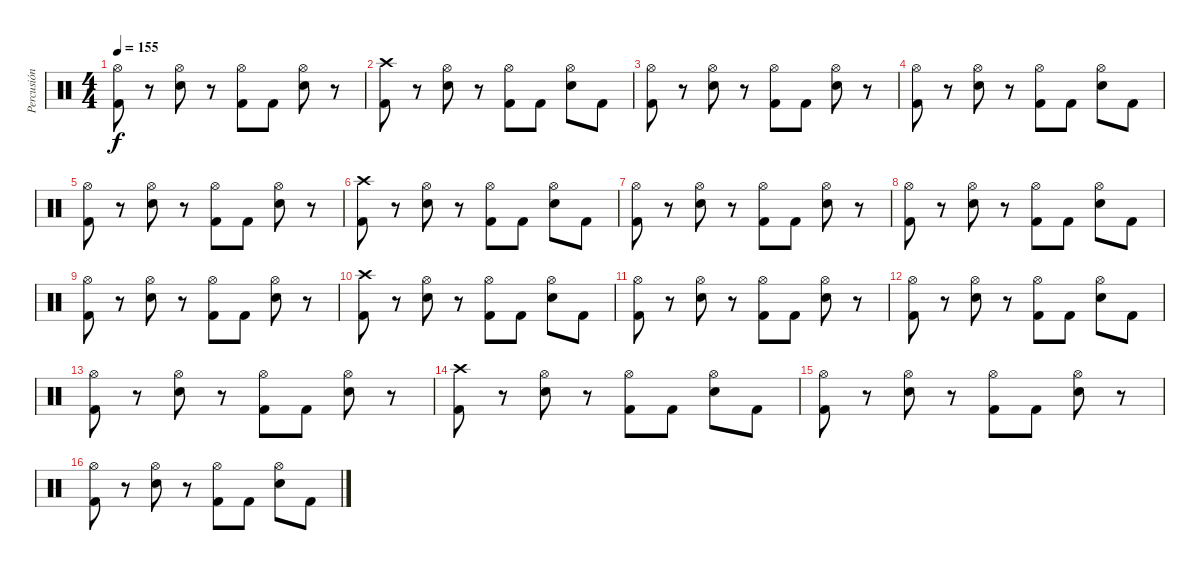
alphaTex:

\track ("Percusión" "Percusión") {instrument percussion}
\staff {score}
\articulation defaults
\ts (4 4)
\tempo 155
\clef neutral
\ks c
("Hi-Hat (open)" "Kick (hit) 2").8{dy f} r.8 ("Hi-Hat (open)" "Electric Snare (hit)").8 r.8 ("Hi-Hat (open)" "Kick (hit) 2").8 "Kick (hit) 2".8 ("Hi-Hat (open)" "Electric Snare (hit)").8 r.8 |
("Crash high (hit)" "Kick (hit) 2").8 r.8 ("Hi-Hat (open)" "Electric Snare (hit)").8 r.8 ("Hi-Hat (open)" "Kick (hit) 2").8 "Kick (hit) 2".8 ("Hi-Hat (open)" "Electric Snare (hit)").8 "Kick (hit) 2".8 |
("Hi-Hat (open)" "Kick (hit) 2").8 r.8 ("Hi-Hat (open)" "Electric Snare (hit)").8 r.8 ("Hi-Hat (open)" "Kick (hit) 2").8 "Kick (hit) 2".8 ("Hi-Hat (open)" "Electric Snare (hit)").8 r.8 |
("Hi-Hat (open)" "Kick (hit) 2").8 r.8 ("Hi-Hat (open)" "Electric Snare (hit)").8 r.8 ("Hi-Hat (open)" "Kick (hit) 2").8 "Kick (hit) 2".8 ("Hi-Hat (open)" "Electric Snare (hit)").8 "Kick (hit) 2".8 |
("Hi-Hat (open)" "Kick (hit) 2").8 r.8 ("Hi-Hat (open)" "Electric Snare (hit)").8 r.8 ("Hi-Hat (open)" "Kick (hit) 2").8 "Kick (hit) 2".8 ("Hi-Hat (open)" "Electric Snare (hit)").8 r.8 |
("Crash high (hit)" "Kick (hit) 2").8 r.8 ("Hi-Hat (open)" "Electric Snare (hit)").8 r.8 ("Hi-Hat (open)" "Kick (hit) 2").8 "Kick (hit) 2".8 ("Hi-Hat (open)" "Electric Snare (hit)").8 "Kick (hit) 2".8 |
("Hi-Hat (open)" "Kick (hit) 2").8 r.8 ("Hi-Hat (open)" "Electric Snare (hit)").8 r.8 ("Hi-Hat (open)" "Kick (hit) 2").8 "Kick (hit) 2".8 ("Hi-Hat (open)" "Electric Snare (hit)").8 r.8 |
("Hi-Hat (open)" "Kick (hit) 2").8 r.8 ("Hi-Hat (open)" "Electric Snare (hit)").8 r.8 ("Hi-Hat (open)" "Kick (hit) 2").8 "Kick (hit) 2".8 ("Hi-Hat (open)" "Electric Snare (hit)").8 "Kick (hit) 2".8 |
("Hi-Hat (open)" "Kick (hit) 2").8 r.8 ("Hi-Hat (open)" "Electric Snare (hit)").8 r.8 ("Hi-Hat (open)" "Kick (hit) 2").8 "Kick (hit) 2".8 ("Hi-Hat (open)" "Electric Snare (hit)").8 r.8 |
("Crash high (hit)" "Kick (hit) 2").8 r.8 ("Hi-Hat (open)" "Electric Snare (hit)").8 r.8 ("Hi-Hat (open)" "Kick (hit) 2").8 "Kick (hit) 2".8 ("Hi-Hat (open)" "Electric Snare (hit)").8 "Kick (hit) 2".8 |
("Hi-Hat (open)" "Kick (hit) 2").8 r.8 ("Hi-Hat (open)" "Electric Snare (hit)").8 r.8 ("Hi-Hat (open)" "Kick (hit) 2").8 "Kick (hit) 2".8 ("Hi-Hat (open)" "Electric Snare (hit)").8 r.8 |
("Hi-Hat (open)" "Kick (hit) 2").8 r.8 ("Hi-Hat (open)" "Electric Snare (hit)").8 r.8 ("Hi-Hat (open)" "Kick (hit) 2").8 "Kick (hit) 2".8 ("Hi-Hat (open)" "Electric Snare (hit)").8 "Kick (hit) 2".8 |
("Hi-Hat (open)" "Kick (hit) 2").8 r.8 ("Hi-Hat (open)" "Electric Snare (hit)").8 r.8 ("Hi-Hat (open)" "Kick (hit) 2").8 "Kick (hit) 2".8 ("Hi-Hat (open)" "Electric Snare (hit)").8 r.8 |
("Crash high (hit)" "Kick (hit) 2").8 r.8 ("Hi-Hat (open)" "Electric Snare (hit)").8 r.8 ("Hi-Hat (open)" "Kick (hit) 2").8 "Kick (hit) 2".8 ("Hi-Hat (open)" "Electric Snare (hit)").8 "Kick (hit) 2".8 |
("Hi-Hat (open)" "Kick (hit) 2").8 r.8 ("Hi-Hat (open)" "Electric Snare (hit)").8 r.8 ("Hi-Hat (open)" "Kick (hit) 2").8 "Kick (hit) 2".8 ("Hi-Hat (open)" "Electric Snare (hit)").8 r.8 |
("Hi-Hat (open)" "Kick (hit) 2").8 r.8 ("Hi-Hat (open)" "Electric Snare (hit)").8 r.8 ("Hi-Hat (open)" "Kick (hit) 2").8 "Kick (hit) 2".8 ("Hi-Hat (open)" "Electric Snare (hit)").8 "Kick (hit) 2".8
